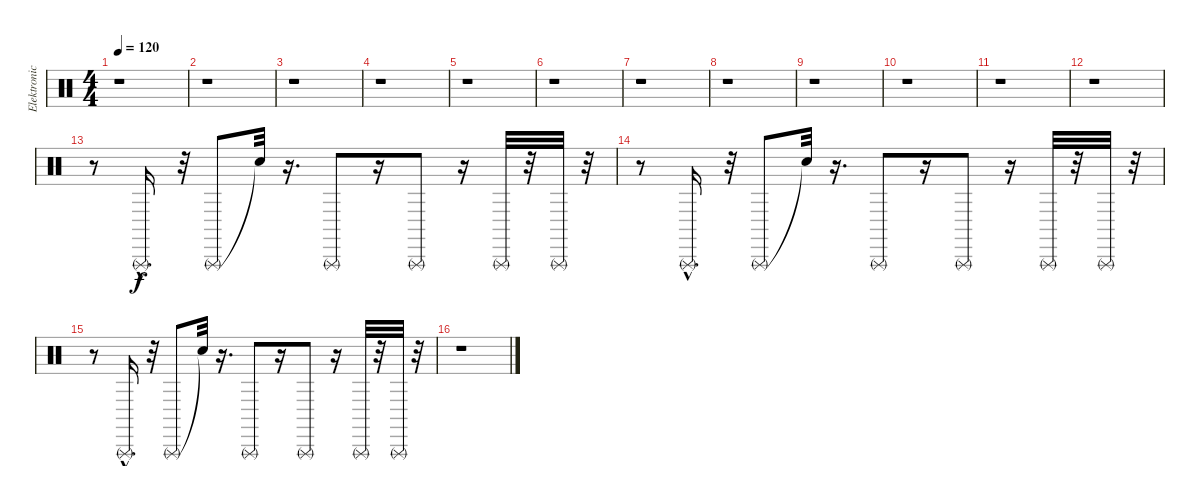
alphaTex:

\track ("Elektronické bicí 1" "Elektronic") {instrument percussion}
\staff {score}
\articulation defaults
\ts (4 4)
\tempo 120
\clef neutral
\ks c
r.1{dy f} |
r.1 |
r.1 |
r.1 |
r.1 |
r.1 |
r.1 |
r.1 |
r.1 |
r.1 |
r.1 |
r.1 |
r.8 "Triangle (rnute)"{hac}.16{d} r.32 "Triangle (rnute)".8 "Snare (hit)"{t}.32 r.16{d} "Triangle (rnute)".8 r.16 "Triangle (rnute)".8 r.16 "Triangle (rnute)".32 r.32 "Triangle (rnute)".32 r.32 |
r.8 "Triangle (rnute)"{hac}.16{d} r.32 "Triangle (rnute)".8 "Snare (hit)"{t}.32 r.16{d} "Triangle (rnute)".8 r.16 "Triangle (rnute)".8 r.16 "Triangle (rnute)".32 r.32 "Triangle (rnute)".32 r.32 |
r.8 "Triangle (rnute)"{hac}.16{d} r.32 "Triangle (rnute)".8 "Snare (hit)"{t}.32 r.16{d} "Triangle (rnute)".8 r.16 "Triangle (rnute)".8 r.16 "Triangle (rnute)".32 r.32 "Triangle (rnute)".32 r.32 |
r.1
